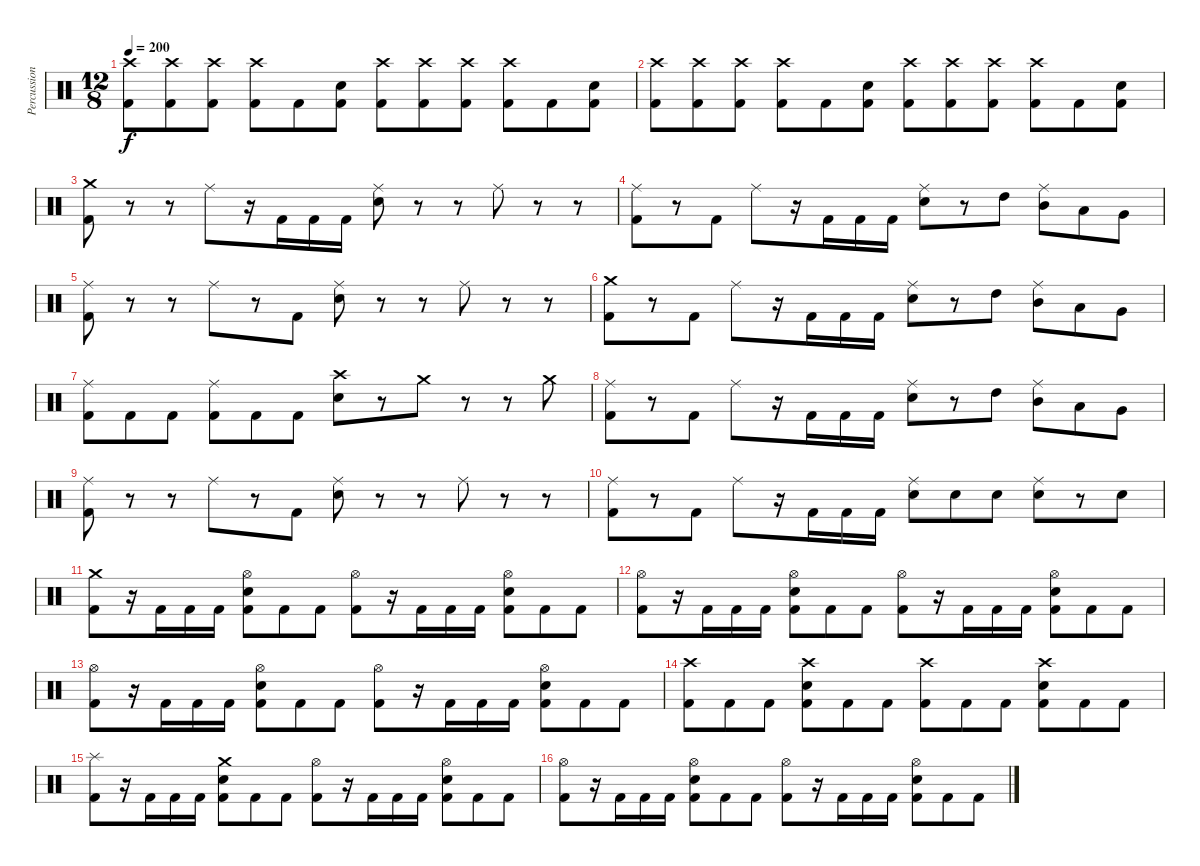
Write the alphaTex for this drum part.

\track ("Percussion" "Percussion") {instrument percussion}
\staff {score}
\articulation defaults
\ts (12 8)
\tempo 200
\clef neutral
\ks c
("Crash high (hit)" "Kick (hit) 2").8{dy f} ("Crash high (hit)" "Kick (hit) 2").8 ("Crash high (hit)" "Kick (hit) 2").8 ("Crash high (hit)" "Kick (hit) 2").8 "Kick (hit) 2".8 ("Snare (hit) 2" "Kick (hit) 2").8 ("Crash high (hit)" "Kick (hit) 2").8 ("Crash high (hit)" "Kick (hit) 2").8 ("Crash high (hit)" "Kick (hit) 2").8 ("Crash high (hit)" "Kick (hit) 2").8 "Kick (hit) 2".8 ("Snare (hit) 2" "Kick (hit) 2").8 |
("Crash high (hit)" "Kick (hit) 2").8 ("Crash high (hit)" "Kick (hit) 2").8 ("Crash high (hit)" "Kick (hit) 2").8 ("Crash high (hit)" "Kick (hit) 2").8 "Kick (hit) 2".8 ("Snare (hit) 2" "Kick (hit) 2").8 ("Crash high (hit)" "Kick (hit) 2").8 ("Crash high (hit)" "Kick (hit) 2").8 ("Crash high (hit)" "Kick (hit) 2").8 ("Crash high (hit)" "Kick (hit) 2").8 "Kick (hit) 2".8 ("Snare (hit) 2" "Kick (hit) 2").8 |
("Crash medium (hit)" "Kick (hit) 2").8 r.8 r.8 "Ride (middle)".8 r.16 "Kick (hit) 2".16 "Kick (hit) 2".16 "Kick (hit) 2".16 ("Ride (middle)" "Snare (hit) 2").8 r.8 r.8 "Ride (middle)".8 r.8 r.8 |
("Ride (middle)" "Kick (hit) 2").8 r.8 "Kick (hit) 2".8 "Ride (middle)".8 r.16 "Kick (hit) 2".16 "Kick (hit) 2".16 "Kick (hit) 2".16 ("Ride (middle)" "Snare (hit) 2").8 r.8 "High Tom (hit)".8 ("Ride (middle)" "Mid Tom (hit)").8 "Low Tom (hit)".8 "Very Low Tom (hit)".8 |
("Ride (middle)" "Kick (hit) 2").8 r.8 r.8 "Ride (middle)".8 r.8 "Kick (hit) 2".8 ("Ride (middle)" "Snare (hit) 2").8 r.8 r.8 "Ride (middle)".8 r.8 r.8 |
("Crash medium (hit)" "Kick (hit) 2").8 r.8 "Kick (hit) 2".8 "Ride (middle)".8 r.16 "Kick (hit) 2".16 "Kick (hit) 2".16 "Kick (hit) 2".16 ("Ride (middle)" "Snare (hit) 2").8 r.8 "High Tom (hit)".8 ("Ride (middle)" "Mid Tom (hit)").8 "Low Tom (hit)".8 "Very Low Tom (hit)".8 |
("Ride (middle)" "Kick (hit) 2").8 "Kick (hit) 2".8 "Kick (hit) 2".8 ("Ride (middle)" "Kick (hit) 2").8 "Kick (hit) 2".8 "Kick (hit) 2".8 ("Crash high (hit)" "Snare (hit) 2").8 r.8 "Crash medium (hit)".8 r.8 r.8 "Crash medium (hit)".8 |
("Ride (middle)" "Kick (hit) 2").8 r.8 "Kick (hit) 2".8 "Ride (middle)".8 r.16 "Kick (hit) 2".16 "Kick (hit) 2".16 "Kick (hit) 2".16 ("Ride (middle)" "Snare (hit) 2").8 r.8 "High Tom (hit)".8 ("Ride (middle)" "Mid Tom (hit)").8 "Low Tom (hit)".8 "Very Low Tom (hit)".8 |
("Ride (middle)" "Kick (hit) 2").8 r.8 r.8 "Ride (middle)".8 r.8 "Kick (hit) 2".8 ("Ride (middle)" "Snare (hit) 2").8 r.8 r.8 "Ride (middle)".8 r.8 r.8 |
("Ride (middle)" "Kick (hit) 2").8 r.8 "Kick (hit) 2".8 "Ride (middle)".8 r.16 "Kick (hit) 2".16 "Kick (hit) 2".16 "Kick (hit) 2".16 ("Ride (middle)" "Snare (hit) 2").8 "Snare (hit) 2".8 "Snare (hit) 2".8 ("Ride (middle)" "Snare (hit) 2").8 r.8 "Snare (hit) 2".8 |
("Crash medium (hit)" "Kick (hit) 2").8 r.16 "Kick (hit) 2".16 "Kick (hit) 2".16 "Kick (hit) 2".16 ("Hi-Hat (open)" "Snare (hit) 2" "Kick (hit) 2").8 "Kick (hit) 2".8 "Kick (hit) 2".8 ("Hi-Hat (open)" "Kick (hit) 2").8 r.16 "Kick (hit) 2".16 "Kick (hit) 2".16 "Kick (hit) 2".16 ("Hi-Hat (open)" "Snare (hit) 2" "Kick (hit) 2").8 "Kick (hit) 2".8 "Kick (hit) 2".8 |
("Hi-Hat (open)" "Kick (hit) 2").8 r.16 "Kick (hit) 2".16 "Kick (hit) 2".16 "Kick (hit) 2".16 ("Hi-Hat (open)" "Snare (hit) 2" "Kick (hit) 2").8 "Kick (hit) 2".8 "Kick (hit) 2".8 ("Hi-Hat (open)" "Kick (hit) 2").8 r.16 "Kick (hit) 2".16 "Kick (hit) 2".16 "Kick (hit) 2".16 ("Hi-Hat (open)" "Snare (hit) 2" "Kick (hit) 2").8 "Kick (hit) 2".8 "Kick (hit) 2".8 |
("Hi-Hat (open)" "Kick (hit) 2").8 r.16 "Kick (hit) 2".16 "Kick (hit) 2".16 "Kick (hit) 2".16 ("Hi-Hat (open)" "Snare (hit) 2" "Kick (hit) 2").8 "Kick (hit) 2".8 "Kick (hit) 2".8 ("Hi-Hat (open)" "Kick (hit) 2").8 r.16 "Kick (hit) 2".16 "Kick (hit) 2".16 "Kick (hit) 2".16 ("Hi-Hat (open)" "Snare (hit) 2" "Kick (hit) 2").8 "Kick (hit) 2".8 "Kick (hit) 2".8 |
("Crash high (hit)" "Kick (hit) 2").8 "Kick (hit) 2".8 "Kick (hit) 2".8 ("Crash high (hit)" "Snare (hit) 2" "Kick (hit) 2").8 "Kick (hit) 2".8 "Kick (hit) 2".8 ("Crash high (hit)" "Kick (hit) 2").8 "Kick (hit) 2".8 "Kick (hit) 2".8 ("Crash high (hit)" "Snare (hit) 2" "Kick (hit) 2").8 "Kick (hit) 2".8 "Kick (hit) 2".8 |
("Splash (hit)" "Kick (hit) 2").8 r.16 "Kick (hit) 2".16 "Kick (hit) 2".16 "Kick (hit) 2".16 ("Crash medium (hit)" "Snare (hit) 2" "Kick (hit) 2").8 "Kick (hit) 2".8 "Kick (hit) 2".8 ("Hi-Hat (open)" "Kick (hit) 2").8 r.16 "Kick (hit) 2".16 "Kick (hit) 2".16 "Kick (hit) 2".16 ("Hi-Hat (open)" "Snare (hit) 2" "Kick (hit) 2").8 "Kick (hit) 2".8 "Kick (hit) 2".8 |
("Hi-Hat (open)" "Kick (hit) 2").8 r.16 "Kick (hit) 2".16 "Kick (hit) 2".16 "Kick (hit) 2".16 ("Hi-Hat (open)" "Snare (hit) 2" "Kick (hit) 2").8 "Kick (hit) 2".8 "Kick (hit) 2".8 ("Hi-Hat (open)" "Kick (hit) 2").8 r.16 "Kick (hit) 2".16 "Kick (hit) 2".16 "Kick (hit) 2".16 ("Hi-Hat (open)" "Snare (hit) 2" "Kick (hit) 2").8 "Kick (hit) 2".8 "Kick (hit) 2".8
